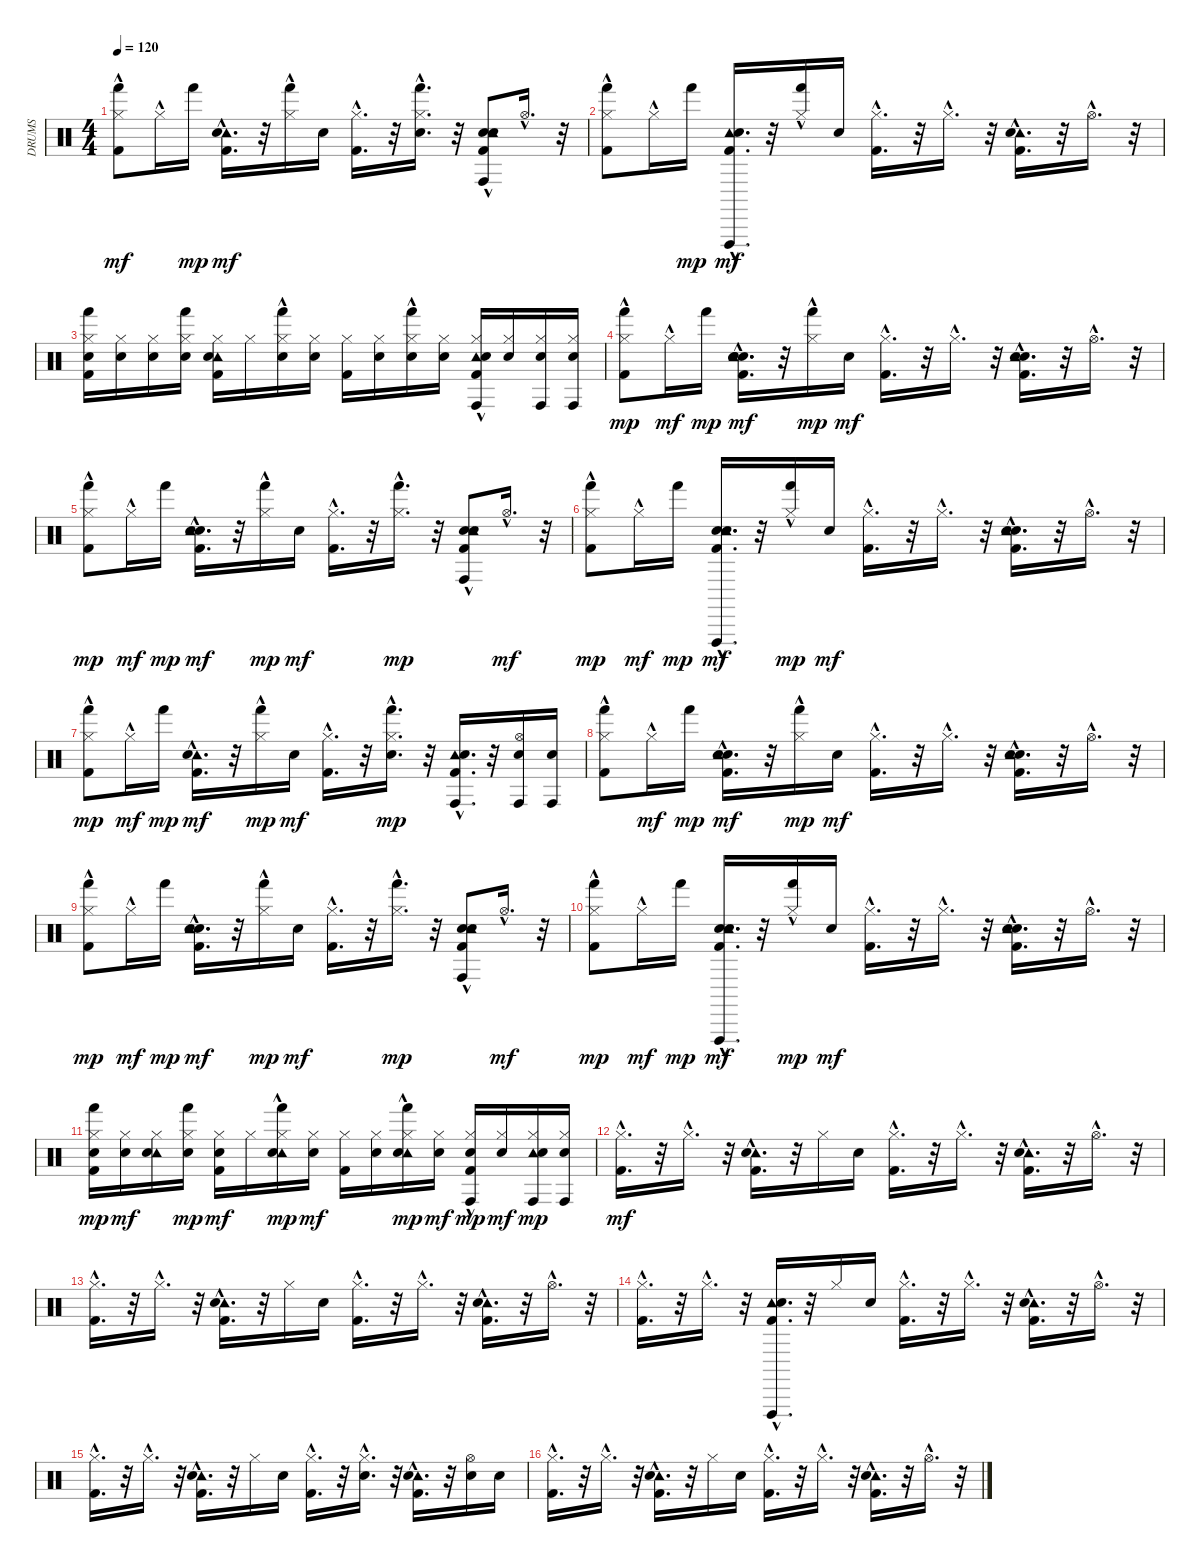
\track ("DRUMS" "DRUMS") {instrument percussion}
\staff {score}
\articulation defaults
\ts (4 4)
\tempo 120
\clef neutral
\ks c
("Hand (hit)" "Hi-Hat (closed)"{hac} "Kick (hit) 2"{hac}).8{dy mf} "Hi-Hat (closed)"{hac}.16 "Hand (hit)".16{dy mp} ("Tambourine (hit)"{hac} "Electric Snare (hit)"{hac} "Kick (hit) 2"{hac}).16{d dy mf} r.32 ("Hand (hit)"{hac} "Hi-Hat (closed)").16 "Electric Snare (hit)".16 ("Hi-Hat (closed)"{hac} "Kick (hit) 2"{hac}).16{d} r.32 ("Electric Snare (hit)"{hac} "Hand (hit)"{hac} "Hi-Hat (closed)"{hac}).16{d} r.32 ("Hand Clap (hit)"{hac} "Tambourine (hit)"{hac} "Conga high (hit)"{hac} "Electric Snare (hit)"{hac} "Kick (hit) 2"{hac}).8 "Hi-Hat (open)"{hac}.16{d} r.32 |
("Hand (hit)" "Hi-Hat (closed)"{hac} "Kick (hit) 2"{hac}).8 "Hi-Hat (closed)"{hac}.16 "Hand (hit)".16{dy mp} ("Vibraslap (hit)"{hac} "Tambourine (hit)"{hac} "Electric Snare (hit)"{hac} "Kick (hit) 2"{hac}).16{d dy mf} r.32 ("Hand (hit)"{hac} "Hi-Hat (closed)").16 "Electric Snare (hit)".16 ("Hi-Hat (closed)"{hac} "Kick (hit) 2"{hac}).16{d} r.32 "Hi-Hat (closed)"{hac}.16{d} r.32 ("Tambourine (hit)"{hac} "Electric Snare (hit)"{hac} "Kick (hit) 2"{hac}).16{d} r.32 "Hi-Hat (open)"{hac}.16{d} r.32 |
("Hand (hit)" "Hi-Hat (closed)" "Kick (hit) 2" "Electric Snare (hit)").16 ("Hi-Hat (closed)" "Electric Snare (hit)").16 ("Hi-Hat (closed)" "Electric Snare (hit)").16 ("Hand (hit)" "Hi-Hat (closed)" "Electric Snare (hit)").16 ("Tambourine (hit)" "Electric Snare (hit)" "Kick (hit) 2" "Hi-Hat (closed)").16 "Hi-Hat (closed)".16 ("Hand (hit)"{hac} "Hi-Hat (closed)" "Electric Snare (hit)").16 ("Electric Snare (hit)" "Hi-Hat (closed)").16 ("Kick (hit) 2" "Hi-Hat (closed)").16 ("Electric Snare (hit)" "Hi-Hat (closed)").16 ("Hand (hit)"{hac} "Hi-Hat (closed)" "Electric Snare (hit)").16 ("Electric Snare (hit)" "Hi-Hat (closed)").16 ("Tambourine (hit)" "Conga high (hit)"{hac} "Kick (hit) 2" "Hi-Hat (closed)" "Electric Snare (hit)").16 ("Electric Snare (hit)" "Hi-Hat (closed)").16 ("Conga high (hit)" "Hi-Hat (closed)" "Electric Snare (hit)").16 ("Conga high (hit)" "Hi-Hat (closed)" "Electric Snare (hit)").16 |
("Kick (hit) 2"{hac} "Hi-Hat (closed)"{hac} "Hand (hit)").8{dy mp} "Hi-Hat (closed)"{hac}.16{dy mf} "Hand (hit)".16{dy mp} ("Hand Clap (hit)"{hac} "Tambourine (hit)"{hac} "Hand Clap (hit)"{hac} "Kick (hit) 2"{hac} "Electric Snare (hit)"{hac}).16{d dy mf} r.32 ("Hi-Hat (closed)" "Hand (hit)"{hac}).16{dy mp} "Electric Snare (hit)".16{dy mf} ("Kick (hit) 2"{hac} "Hi-Hat (closed)"{hac}).16{d} r.32 "Hi-Hat (closed)"{hac}.16{d} r.32 ("Hand Clap (hit)"{hac} "Tambourine (hit)"{hac} "Kick (hit) 2"{hac} "Electric Snare (hit)"{hac}).16{d} r.32 "Hi-Hat (open)"{hac}.16{d} r.32 |
("Hi-Hat (closed)"{hac} "Kick (hit) 2"{hac} "Hand (hit)").8{dy mp} "Hi-Hat (closed)"{hac}.16{dy mf} "Hand (hit)".16{dy mp} ("Hand Clap (hit)"{hac} "Tambourine (hit)"{hac} "Electric Snare (hit)"{hac} "Kick (hit) 2"{hac}).16{d dy mf} r.32 ("Hi-Hat (closed)" "Hand (hit)"{hac}).16{dy mp} "Electric Snare (hit)".16{dy mf} ("Hi-Hat (closed)"{hac} "Kick (hit) 2"{hac}).16{d} r.32 ("Hi-Hat (closed)"{hac} "Hand (hit)"{hac}).16{d dy mp} r.32 ("Hand Clap (hit)"{hac} "Tambourine (hit)"{hac} "Electric Snare (hit)"{hac} "Kick (hit) 2"{hac} "Conga high (hit)"{hac}).8 "Hi-Hat (open)"{hac}.16{d dy mf} r.32 |
("Hi-Hat (closed)"{hac} "Kick (hit) 2"{hac} "Hand (hit)").8{dy mp} "Hi-Hat (closed)"{hac}.16{dy mf} "Hand (hit)".16{dy mp} ("Hand Clap (hit)"{hac} "Vibraslap (hit)"{hac} "Tambourine (hit)"{hac} "Electric Snare (hit)"{hac} "Kick (hit) 2"{hac}).16{d dy mf} r.32 ("Hi-Hat (closed)" "Hand (hit)"{hac}).16{dy mp} "Electric Snare (hit)".16{dy mf} ("Hi-Hat (closed)"{hac} "Kick (hit) 2"{hac}).16{d} r.32 "Hi-Hat (closed)"{hac}.16{d} r.32 ("Hand Clap (hit)"{hac} "Tambourine (hit)"{hac} "Electric Snare (hit)"{hac} "Kick (hit) 2"{hac}).16{d} r.32 "Hi-Hat (open)"{hac}.16{d} r.32 |
("Hi-Hat (closed)"{hac} "Kick (hit) 2"{hac} "Hand (hit)").8{dy mp} "Hi-Hat (closed)"{hac}.16{dy mf} "Hand (hit)".16{dy mp} ("Tambourine (hit)"{hac} "Electric Snare (hit)"{hac} "Kick (hit) 2"{hac}).16{d dy mf} r.32 ("Hi-Hat (closed)" "Hand (hit)"{hac}).16{dy mp} "Electric Snare (hit)".16{dy mf} ("Hi-Hat (closed)"{hac} "Kick (hit) 2"{hac}).16{d} r.32 ("Hi-Hat (closed)"{hac} "Electric Snare (hit)"{hac} "Hand (hit)"{hac}).16{d dy mp} r.32 ("Tambourine (hit)"{hac} "Electric Snare (hit)"{hac} "Kick (hit) 2"{hac} "Conga high (hit)"{hac}).16{d} r.32 ("Hi-Hat (open)" "Electric Snare (hit)" "Conga high (hit)").16 ("Electric Snare (hit)" "Conga high (hit)").16 |
("Hi-Hat (closed)"{hac} "Kick (hit) 2"{hac} "Hand (hit)").8 "Hi-Hat (closed)"{hac}.16{dy mf} "Hand (hit)".16{dy mp} ("Hand Clap (hit)"{hac} "Tambourine (hit)"{hac} "Electric Snare (hit)"{hac} "Kick (hit) 2"{hac}).16{d dy mf} r.32 ("Hi-Hat (closed)" "Hand (hit)"{hac}).16{dy mp} "Electric Snare (hit)".16{dy mf} ("Hi-Hat (closed)"{hac} "Kick (hit) 2"{hac}).16{d} r.32 "Hi-Hat (closed)"{hac}.16{d} r.32 ("Hand Clap (hit)"{hac} "Tambourine (hit)"{hac} "Electric Snare (hit)"{hac} "Kick (hit) 2"{hac}).16{d} r.32 "Hi-Hat (open)"{hac}.16{d} r.32 |
("Kick (hit) 2"{hac} "Hi-Hat (closed)"{hac} "Hand (hit)").8{dy mp} "Hi-Hat (closed)"{hac}.16{dy mf} "Hand (hit)".16{dy mp} ("Hand Clap (hit)"{hac} "Tambourine (hit)"{hac} "Kick (hit) 2"{hac} "Electric Snare (hit)"{hac}).16{d dy mf} r.32 ("Hi-Hat (closed)" "Hand (hit)"{hac}).16{dy mp} "Electric Snare (hit)".16{dy mf} ("Kick (hit) 2"{hac} "Hi-Hat (closed)"{hac}).16{d} r.32 ("Hi-Hat (closed)"{hac} "Hand (hit)"{hac}).16{d dy mp} r.32 ("Hand Clap (hit)"{hac} "Tambourine (hit)"{hac} "Kick (hit) 2"{hac} "Electric Snare (hit)"{hac} "Conga high (hit)"{hac}).8 "Hi-Hat (open)"{hac}.16{d dy mf} r.32 |
("Kick (hit) 2"{hac} "Hi-Hat (closed)"{hac} "Hand (hit)").8{dy mp} "Hi-Hat (closed)"{hac}.16{dy mf} "Hand (hit)".16{dy mp} ("Hand Clap (hit)"{hac} "Vibraslap (hit)"{hac} "Tambourine (hit)"{hac} "Kick (hit) 2"{hac} "Electric Snare (hit)"{hac}).16{d dy mf} r.32 ("Hi-Hat (closed)" "Hand (hit)"{hac}).16{dy mp} "Electric Snare (hit)".16{dy mf} ("Kick (hit) 2"{hac} "Hi-Hat (closed)"{hac}).16{d} r.32 "Hi-Hat (closed)"{hac}.16{d} r.32 ("Hand Clap (hit)"{hac} "Tambourine (hit)"{hac} "Kick (hit) 2"{hac} "Electric Snare (hit)"{hac}).16{d} r.32 "Hi-Hat (open)"{hac}.16{d} r.32 |
("Electric Snare (hit)" "Kick (hit) 2" "Hi-Hat (closed)" "Hand (hit)").16{dy mp} ("Electric Snare (hit)" "Hi-Hat (closed)").16{dy mf} ("Tambourine (hit)" "Electric Snare (hit)" "Hi-Hat (closed)").16 ("Electric Snare (hit)" "Hi-Hat (closed)" "Hand (hit)").16{dy mp} ("Hi-Hat (closed)" "Kick (hit) 2" "Electric Snare (hit)").16{dy mf} "Hi-Hat (closed)".16 ("Tambourine (hit)" "Electric Snare (hit)" "Hi-Hat (closed)" "Hand (hit)"{hac}).16{dy mp} ("Hi-Hat (closed)" "Electric Snare (hit)").16{dy mf} ("Hi-Hat (closed)" "Kick (hit) 2").16 ("Hi-Hat (closed)" "Electric Snare (hit)").16 ("Tambourine (hit)" "Electric Snare (hit)" "Hi-Hat (closed)" "Hand (hit)"{hac}).16{dy mp} ("Hi-Hat (closed)" "Electric Snare (hit)").16{dy mf} ("Electric Snare (hit)" "Hi-Hat (closed)" "Kick (hit) 2" "Conga high (hit)"{hac}).16{dy mp} ("Hi-Hat (closed)" "Electric Snare (hit)").16{dy mf} ("Tambourine (hit)" "Electric Snare (hit)" "Hi-Hat (closed)" "Conga high (hit)").16{dy mp} ("Electric Snare (hit)" "Hi-Hat (closed)" "Conga high (hit)").16 |
("Kick (hit) 2"{hac} "Hi-Hat (closed)"{hac}).16{d dy mf} r.32 "Hi-Hat (closed)"{hac}.16{d} r.32 ("Tambourine (hit)"{hac} "Kick (hit) 2"{hac} "Electric Snare (hit)"{hac}).16{d} r.32 "Hi-Hat (closed)".16 "Electric Snare (hit)".16 ("Hi-Hat (closed)"{hac} "Kick (hit) 2"{hac}).16{d} r.32 "Hi-Hat (closed)"{hac}.16{d} r.32 ("Tambourine (hit)"{hac} "Kick (hit) 2"{hac} "Electric Snare (hit)"{hac}).16{d} r.32 "Hi-Hat (open)"{hac}.16{d} r.32 |
("Hi-Hat (closed)"{hac} "Kick (hit) 2"{hac}).16{d} r.32 "Hi-Hat (closed)"{hac}.16{d} r.32 ("Tambourine (hit)"{hac} "Electric Snare (hit)"{hac} "Kick (hit) 2"{hac}).16{d} r.32 "Hi-Hat (closed)".16 "Electric Snare (hit)".16 ("Hi-Hat (closed)"{hac} "Kick (hit) 2"{hac}).16{d} r.32 "Hi-Hat (closed)"{hac}.16{d} r.32 ("Tambourine (hit)"{hac} "Electric Snare (hit)"{hac} "Kick (hit) 2"{hac}).16{d} r.32 "Hi-Hat (open)"{hac}.16{d} r.32 |
("Hi-Hat (closed)"{hac} "Kick (hit) 2"{hac}).16{d} r.32 "Hi-Hat (closed)"{hac}.16{d} r.32 ("Tambourine (hit)"{hac} "Vibraslap (hit)"{hac} "Electric Snare (hit)"{hac} "Kick (hit) 2"{hac}).16{d} r.32 "Hi-Hat (closed)".16 "Electric Snare (hit)".16 ("Hi-Hat (closed)"{hac} "Kick (hit) 2"{hac}).16{d} r.32 "Hi-Hat (closed)"{hac}.16{d} r.32 ("Tambourine (hit)"{hac} "Electric Snare (hit)"{hac} "Kick (hit) 2"{hac}).16{d} r.32 "Hi-Hat (open)"{hac}.16{d} r.32 |
("Hi-Hat (closed)"{hac} "Kick (hit) 2"{hac}).16{d} r.32 "Hi-Hat (closed)"{hac}.16{d} r.32 ("Tambourine (hit)"{hac} "Electric Snare (hit)"{hac} "Kick (hit) 2"{hac}).16{d} r.32 "Hi-Hat (closed)".16 "Electric Snare (hit)".16 ("Hi-Hat (closed)"{hac} "Kick (hit) 2"{hac}).16{d} r.32 ("Hi-Hat (closed)"{hac} "Electric Snare (hit)"{hac}).16{d} r.32 ("Tambourine (hit)"{hac} "Kick (hit) 2"{hac} "Electric Snare (hit)"{hac}).16{d} r.32 ("Electric Snare (hit)" "Hi-Hat (open)").16 "Electric Snare (hit)".16 |
("Hi-Hat (closed)"{hac} "Kick (hit) 2"{hac}).16{d} r.32 "Hi-Hat (closed)"{hac}.16{d} r.32 ("Tambourine (hit)"{hac} "Electric Snare (hit)"{hac} "Kick (hit) 2"{hac}).16{d} r.32 "Hi-Hat (closed)".16 "Electric Snare (hit)".16 ("Kick (hit) 2"{hac} "Hi-Hat (closed)"{hac}).16{d} r.32 "Hi-Hat (closed)"{hac}.16{d} r.32 ("Tambourine (hit)"{hac} "Electric Snare (hit)"{hac} "Kick (hit) 2"{hac}).16{d} r.32 "Hi-Hat (open)"{hac}.16{d} r.32
